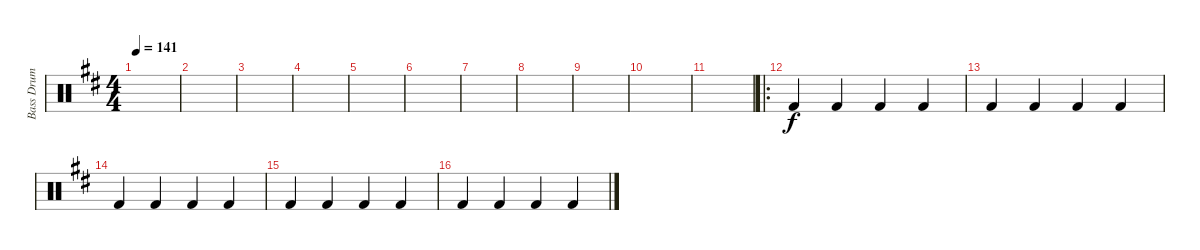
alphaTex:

\track ("Bass Drum" "Bass Drum") {instrument percussion}
\staff {score}
\articulation defaults
\ts (4 4)
\tempo 141
\clef neutral
\ks d
|
|
|
|
|
|
|
|
|
|
|
\ro "Kick (hit) 2".4 "Kick (hit) 2".4 "Kick (hit) 2".4 "Kick (hit) 2".4
|
"Kick (hit) 2".4 "Kick (hit) 2".4 "Kick (hit) 2".4 "Kick (hit) 2".4 |
"Kick (hit) 2".4 "Kick (hit) 2".4 "Kick (hit) 2".4 "Kick (hit) 2".4 |
"Kick (hit) 2".4 "Kick (hit) 2".4 "Kick (hit) 2".4 "Kick (hit) 2".4 |
"Kick (hit) 2".4 "Kick (hit) 2".4 "Kick (hit) 2".4 "Kick (hit) 2".4
